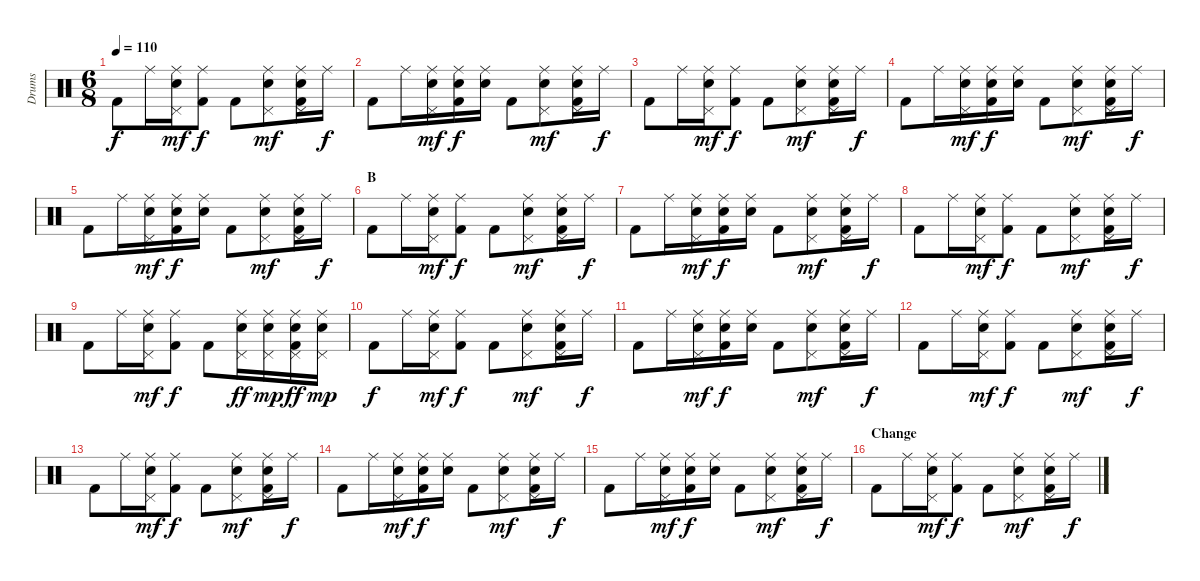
\track ("Drums" "Drums") {instrument percussion}
\staff {score}
\articulation defaults
\ts (6 8)
\tempo 110
\clef neutral
\ks c "Kick (hit) 2".8{dy f} "Ride (middle)".16
("Ride (middle)" "Pedal Hi-Hat (hit)" "Electric Snare (hit)").16{dy mf} ("Ride (middle)" "Kick (hit) 2").8{dy f} "Kick (hit) 2".8 ("Ride (middle)" "Pedal Hi-Hat (hit)" "Electric Snare (hit)").8{dy mf} ("Ride (middle)" "Pedal Hi-Hat (hit)" "Electric Snare (hit)" "Kick (hit) 2").16 "Ride (middle)".16{dy f} |
"Kick (hit) 2".8 "Ride (middle)".16 ("Ride (middle)" "Pedal Hi-Hat (hit)" "Electric Snare (hit)").16{dy mf} ("Ride (middle)" "Electric Snare (hit)" "Kick (hit) 2").16{dy f} ("Ride (middle)" "Electric Snare (hit)").16 "Kick (hit) 2".8 ("Ride (middle)" "Pedal Hi-Hat (hit)" "Electric Snare (hit)").8{dy mf} ("Ride (middle)" "Pedal Hi-Hat (hit)" "Electric Snare (hit)" "Kick (hit) 2").16 "Ride (middle)".16{dy f} |
"Kick (hit) 2".8 "Ride (middle)".16 ("Ride (middle)" "Pedal Hi-Hat (hit)" "Electric Snare (hit)").16{dy mf} ("Ride (middle)" "Kick (hit) 2").8{dy f} "Kick (hit) 2".8 ("Ride (middle)" "Pedal Hi-Hat (hit)" "Electric Snare (hit)").8{dy mf} ("Ride (middle)" "Pedal Hi-Hat (hit)" "Electric Snare (hit)" "Kick (hit) 2").16 "Ride (middle)".16{dy f} |
"Kick (hit) 2".8 "Ride (middle)".16 ("Ride (middle)" "Pedal Hi-Hat (hit)" "Electric Snare (hit)").16{dy mf} ("Ride (middle)" "Electric Snare (hit)" "Kick (hit) 2").16{dy f} ("Ride (middle)" "Electric Snare (hit)").16 "Kick (hit) 2".8 ("Ride (middle)" "Pedal Hi-Hat (hit)" "Electric Snare (hit)").8{dy mf} ("Ride (middle)" "Pedal Hi-Hat (hit)" "Electric Snare (hit)" "Kick (hit) 2").16 "Ride (middle)".16{dy f} |
"Kick (hit) 2".8 "Ride (middle)".16 ("Ride (middle)" "Pedal Hi-Hat (hit)" "Electric Snare (hit)").16{dy mf} ("Ride (middle)" "Electric Snare (hit)" "Kick (hit) 2").16{dy f} ("Ride (middle)" "Electric Snare (hit)").16 "Kick (hit) 2".8 ("Ride (middle)" "Pedal Hi-Hat (hit)" "Electric Snare (hit)").8{dy mf} ("Ride (middle)" "Pedal Hi-Hat (hit)" "Electric Snare (hit)" "Kick (hit) 2").16 "Ride (middle)".16{dy f} |
\section ("" "B")
"Kick (hit) 2".8 "Ride (middle)".16 ("Ride (middle)" "Pedal Hi-Hat (hit)" "Electric Snare (hit)").16{dy mf} ("Ride (middle)" "Kick (hit) 2").8{dy f} "Kick (hit) 2".8 ("Ride (middle)" "Pedal Hi-Hat (hit)" "Electric Snare (hit)").8{dy mf} ("Ride (middle)" "Pedal Hi-Hat (hit)" "Electric Snare (hit)" "Kick (hit) 2").16 "Ride (middle)".16{dy f} |
"Kick (hit) 2".8 "Ride (middle)".16 ("Ride (middle)" "Pedal Hi-Hat (hit)" "Electric Snare (hit)").16{dy mf} ("Ride (middle)" "Electric Snare (hit)" "Kick (hit) 2").16{dy f} ("Ride (middle)" "Electric Snare (hit)").16 "Kick (hit) 2".8 ("Ride (middle)" "Pedal Hi-Hat (hit)" "Electric Snare (hit)").8{dy mf} ("Ride (middle)" "Pedal Hi-Hat (hit)" "Electric Snare (hit)" "Kick (hit) 2").16 "Ride (middle)".16{dy f} |
"Kick (hit) 2".8 "Ride (middle)".16 ("Ride (middle)" "Pedal Hi-Hat (hit)" "Electric Snare (hit)").16{dy mf} ("Ride (middle)" "Kick (hit) 2").8{dy f} "Kick (hit) 2".8 ("Ride (middle)" "Pedal Hi-Hat (hit)" "Electric Snare (hit)").8{dy mf} ("Ride (middle)" "Pedal Hi-Hat (hit)" "Electric Snare (hit)" "Kick (hit) 2").16 "Ride (middle)".16{dy f} |
"Kick (hit) 2".8 "Ride (middle)".16 ("Ride (middle)" "Pedal Hi-Hat (hit)" "Electric Snare (hit)").16{dy mf} ("Ride (middle)" "Kick (hit) 2").8{dy f} "Kick (hit) 2".8 ("Ride (middle)" "Pedal Hi-Hat (hit)" "Electric Snare (hit)").16{dy ff} ("Ride (middle)" "Pedal Hi-Hat (hit)" "Electric Snare (hit)").16{dy mp} ("Ride (middle)" "Pedal Hi-Hat (hit)" "Electric Snare (hit)" "Kick (hit) 2").16{dy ff} ("Ride (middle)" "Pedal Hi-Hat (hit)" "Electric Snare (hit)").16{dy mp} |
"Kick (hit) 2".8{dy f} "Ride (middle)".16 ("Ride (middle)" "Pedal Hi-Hat (hit)" "Electric Snare (hit)").16{dy mf} ("Ride (middle)" "Kick (hit) 2").8{dy f} "Kick (hit) 2".8 ("Ride (middle)" "Pedal Hi-Hat (hit)" "Electric Snare (hit)").8{dy mf} ("Ride (middle)" "Pedal Hi-Hat (hit)" "Electric Snare (hit)" "Kick (hit) 2").16 "Ride (middle)".16{dy f} |
"Kick (hit) 2".8 "Ride (middle)".16 ("Ride (middle)" "Pedal Hi-Hat (hit)" "Electric Snare (hit)").16{dy mf} ("Ride (middle)" "Electric Snare (hit)" "Kick (hit) 2").16{dy f} ("Ride (middle)" "Electric Snare (hit)").16 "Kick (hit) 2".8 ("Ride (middle)" "Pedal Hi-Hat (hit)" "Electric Snare (hit)").8{dy mf} ("Ride (middle)" "Pedal Hi-Hat (hit)" "Electric Snare (hit)" "Kick (hit) 2").16 "Ride (middle)".16{dy f} |
"Kick (hit) 2".8 "Ride (middle)".16 ("Ride (middle)" "Pedal Hi-Hat (hit)" "Electric Snare (hit)").16{dy mf} ("Ride (middle)" "Kick (hit) 2").8{dy f} "Kick (hit) 2".8 ("Ride (middle)" "Pedal Hi-Hat (hit)" "Electric Snare (hit)").8{dy mf} ("Ride (middle)" "Pedal Hi-Hat (hit)" "Electric Snare (hit)" "Kick (hit) 2").16 "Ride (middle)".16{dy f} |
"Kick (hit) 2".8 "Ride (middle)".16 ("Ride (middle)" "Pedal Hi-Hat (hit)" "Electric Snare (hit)").16{dy mf} ("Ride (middle)" "Kick (hit) 2").8{dy f} "Kick (hit) 2".8 ("Ride (middle)" "Pedal Hi-Hat (hit)" "Electric Snare (hit)").8{dy mf} ("Ride (middle)" "Pedal Hi-Hat (hit)" "Electric Snare (hit)" "Kick (hit) 2").16 "Ride (middle)".16{dy f} |
"Kick (hit) 2".8 "Ride (middle)".16 ("Ride (middle)" "Pedal Hi-Hat (hit)" "Electric Snare (hit)").16{dy mf} ("Ride (middle)" "Electric Snare (hit)" "Kick (hit) 2").16{dy f} ("Ride (middle)" "Electric Snare (hit)").16 "Kick (hit) 2".8 ("Ride (middle)" "Pedal Hi-Hat (hit)" "Electric Snare (hit)").8{dy mf} ("Ride (middle)" "Pedal Hi-Hat (hit)" "Electric Snare (hit)" "Kick (hit) 2").16 "Ride (middle)".16{dy f} |
"Kick (hit) 2".8 "Ride (middle)".16 ("Ride (middle)" "Pedal Hi-Hat (hit)" "Electric Snare (hit)").16{dy mf} ("Ride (middle)" "Electric Snare (hit)" "Kick (hit) 2").16{dy f} ("Ride (middle)" "Electric Snare (hit)").16 "Kick (hit) 2".8 ("Ride (middle)" "Pedal Hi-Hat (hit)" "Electric Snare (hit)").8{dy mf} ("Ride (middle)" "Pedal Hi-Hat (hit)" "Electric Snare (hit)" "Kick (hit) 2").16 "Ride (middle)".16{dy f} |
\section ("" "Change")
"Kick (hit) 2".8 "Ride (middle)".16 ("Ride (middle)" "Pedal Hi-Hat (hit)" "Electric Snare (hit)").16{dy mf} ("Ride (middle)" "Kick (hit) 2").8{dy f} "Kick (hit) 2".8 ("Ride (middle)" "Pedal Hi-Hat (hit)" "Electric Snare (hit)").8{dy mf} ("Ride (middle)" "Pedal Hi-Hat (hit)" "Electric Snare (hit)" "Kick (hit) 2").16 "Ride (middle)".16{dy f}
